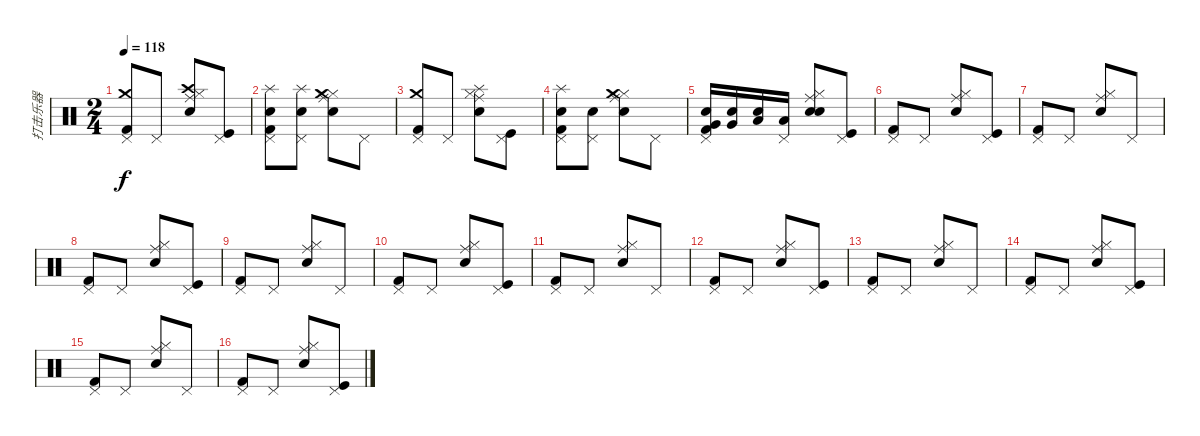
\track ("打击乐器" "打击乐器") {instrument percussion}
\staff {score}
\articulation defaults
\ts (2 4)
\tempo 118
\clef neutral
\ks c
("Pedal Hi-Hat (hit)" "Crash medium (hit)" "Kick (hit) 2").8{dy f} "Pedal Hi-Hat (hit)".8 ("Ride (middle)" "Hi-Hat (closed)" "Crash high (hit)" "Snare (hit) 2").8 ("Pedal Hi-Hat (hit)" "Kick (hit)").8 |
("Snare (hit) 2" "Pedal Hi-Hat (hit)" "Splash (hit)" "Kick (hit) 2").8 ("Snare (hit) 2" "Pedal Hi-Hat (hit)" "Splash (hit)").8 ("Ride (middle)" "Hi-Hat (closed)" "Crash medium (hit)" "Snare (hit) 2").8 "Pedal Hi-Hat (hit)".8 |
("Pedal Hi-Hat (hit)" "Crash medium (hit)" "Kick (hit) 2").8 "Pedal Hi-Hat (hit)".8 ("Ride (middle)" "Hi-Hat (closed)" "Splash (hit)" "Snare (hit) 2").8 ("Pedal Hi-Hat (hit)" "Kick (hit)").8 |
("Snare (hit) 2" "Pedal Hi-Hat (hit)" "Splash (hit)" "Kick (hit) 2").8 ("Snare (hit) 2" "Pedal Hi-Hat (hit)").8 ("Ride (middle)" "Hi-Hat (closed)" "Crash medium (hit)" "Snare (hit) 2").8 "Pedal Hi-Hat (hit)".8 |
("Very Low Tom (hit)" "Pedal Hi-Hat (hit)" "Electric Snare (hit)" "Kick (hit) 2").16 ("Very Low Tom (hit)" "Electric Snare (hit)").16 ("Low Floor Tom (hit)" "Electric Snare (hit)").16 ("Low Floor Tom (hit)" "Pedal Hi-Hat (hit)").16 ("Ride (middle)" "Hi-Hat (closed)" "Electric Snare (hit)" "Snare (hit) 2").8 ("Pedal Hi-Hat (hit)" "Kick (hit)").8 |
("Pedal Hi-Hat (hit)" "Kick (hit) 2").8 "Pedal Hi-Hat (hit)".8 ("Ride (middle)" "Hi-Hat (closed)" "Snare (hit) 2").8 ("Pedal Hi-Hat (hit)" "Kick (hit)").8 |
("Pedal Hi-Hat (hit)" "Kick (hit) 2").8 "Pedal Hi-Hat (hit)".8 ("Ride (middle)" "Hi-Hat (closed)" "Snare (hit) 2").8 "Pedal Hi-Hat (hit)".8 |
("Pedal Hi-Hat (hit)" "Kick (hit) 2").8 "Pedal Hi-Hat (hit)".8 ("Ride (middle)" "Hi-Hat (closed)" "Snare (hit) 2").8 ("Pedal Hi-Hat (hit)" "Kick (hit)").8 |
("Pedal Hi-Hat (hit)" "Kick (hit) 2").8 "Pedal Hi-Hat (hit)".8 ("Ride (middle)" "Hi-Hat (closed)" "Snare (hit) 2").8 "Pedal Hi-Hat (hit)".8 |
("Pedal Hi-Hat (hit)" "Kick (hit) 2").8 "Pedal Hi-Hat (hit)".8 ("Ride (middle)" "Hi-Hat (closed)" "Snare (hit) 2").8 ("Pedal Hi-Hat (hit)" "Kick (hit)").8 |
("Pedal Hi-Hat (hit)" "Kick (hit) 2").8 "Pedal Hi-Hat (hit)".8 ("Ride (middle)" "Hi-Hat (closed)" "Snare (hit) 2").8 "Pedal Hi-Hat (hit)".8 |
("Pedal Hi-Hat (hit)" "Kick (hit) 2").8 "Pedal Hi-Hat (hit)".8 ("Ride (middle)" "Hi-Hat (closed)" "Snare (hit) 2").8 ("Pedal Hi-Hat (hit)" "Kick (hit)").8 |
("Pedal Hi-Hat (hit)" "Kick (hit) 2").8 "Pedal Hi-Hat (hit)".8 ("Ride (middle)" "Hi-Hat (closed)" "Snare (hit) 2").8 "Pedal Hi-Hat (hit)".8 |
("Pedal Hi-Hat (hit)" "Kick (hit) 2").8 "Pedal Hi-Hat (hit)".8 ("Ride (middle)" "Hi-Hat (closed)" "Snare (hit) 2").8 ("Pedal Hi-Hat (hit)" "Kick (hit)").8 |
("Pedal Hi-Hat (hit)" "Kick (hit) 2").8 "Pedal Hi-Hat (hit)".8 ("Ride (middle)" "Hi-Hat (closed)" "Snare (hit) 2").8 "Pedal Hi-Hat (hit)".8 |
("Pedal Hi-Hat (hit)" "Kick (hit) 2").8 "Pedal Hi-Hat (hit)".8 ("Ride (middle)" "Hi-Hat (closed)" "Snare (hit) 2").8 ("Pedal Hi-Hat (hit)" "Kick (hit)").8
